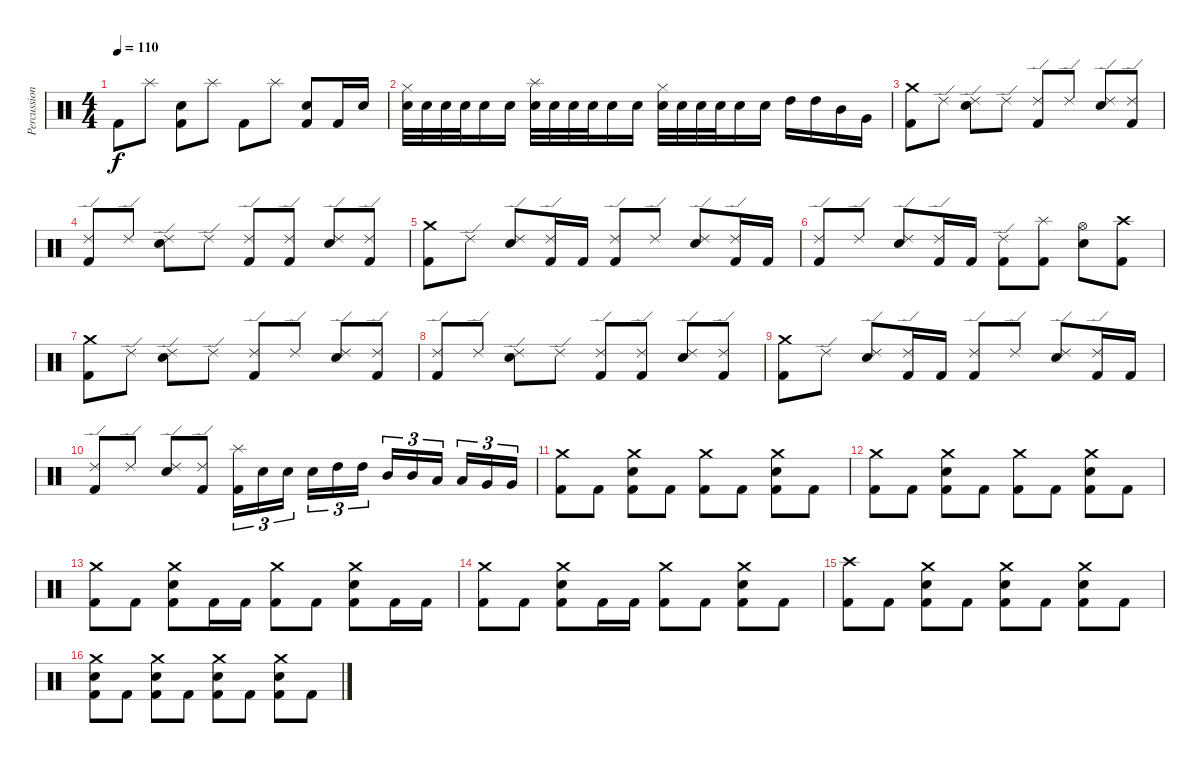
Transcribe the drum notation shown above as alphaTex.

\track ("Percussion" "Percussion") {instrument percussion}
\staff {score}
\articulation defaults
\ts (4 4)
\tempo 110
\clef neutral
\ks c "Kick (hit) 2".8{dy f} "Splash (hit)".8
("Electric Snare (hit)" "Kick (hit) 2").8 "Splash (hit)".8 "Kick (hit) 2".8 "Splash (hit)".8 ("Electric Snare (hit)" "Kick (hit) 2").8 "Kick (hit) 2".16 "Electric Snare (hit)".16 |
("Hi-Hat (closed)" "Electric Snare (hit)").32 "Electric Snare (hit)".32 "Electric Snare (hit)".32 "Electric Snare (hit)".32 "Electric Snare (hit)".16 "Electric Snare (hit)".16 ("Splash (hit)" "Electric Snare (hit)").32 "Electric Snare (hit)".32 "Electric Snare (hit)".32 "Electric Snare (hit)".32 "Electric Snare (hit)".16 "Electric Snare (hit)".16 ("Hi-Hat (closed)" "Electric Snare (hit)").32 "Electric Snare (hit)".32 "Electric Snare (hit)".32 "Electric Snare (hit)".32 "Electric Snare (hit)".16 "Electric Snare (hit)".16 "High Tom (hit)".16 "High Tom (hit)".16 "Mid Tom (hit)".16 "Very Low Tom (hit)".16 |
("Crash medium (hit)" "Kick (hit) 2").8 "Ride (edge) 2".8 ("Ride (edge) 2" "Electric Snare (hit)").8 "Ride (edge) 2".8 ("Ride (edge) 2" "Kick (hit) 2").8 "Ride (edge) 2".8 ("Ride (edge) 2" "Electric Snare (hit)").8 ("Ride (edge) 2" "Kick (hit) 2").8 |
("Ride (edge) 2" "Kick (hit) 2").8 "Ride (edge) 2".8 ("Ride (edge) 2" "Electric Snare (hit)").8 "Ride (edge) 2".8 ("Ride (edge) 2" "Kick (hit) 2").8 ("Ride (edge) 2" "Kick (hit) 2").8 ("Ride (edge) 2" "Electric Snare (hit)").8 ("Ride (edge) 2" "Kick (hit) 2").8 |
("Crash medium (hit)" "Kick (hit) 2").8 "Ride (edge) 2".8 ("Ride (edge) 2" "Electric Snare (hit)").8 ("Ride (edge) 2" "Kick (hit) 2").16 "Kick (hit) 2".16 ("Ride (edge) 2" "Kick (hit) 2").8 "Ride (edge) 2".8 ("Ride (edge) 2" "Electric Snare (hit)").8 ("Ride (edge) 2" "Kick (hit) 2").16 "Kick (hit) 2".16 |
("Ride (edge) 2" "Kick (hit) 2").8 "Ride (edge) 2".8 ("Ride (edge) 2" "Electric Snare (hit)").8 ("Ride (edge) 2" "Kick (hit) 2").16 "Kick (hit) 2".16 ("Ride (edge) 2" "Kick (hit) 2").8 ("Splash (hit)" "Kick (hit) 2").8 ("Hi-Hat (open)" "Electric Snare (hit)").8 ("Crash high (hit)" "Kick (hit) 2").8 |
("Crash medium (hit)" "Kick (hit) 2").8 "Ride (edge) 2".8 ("Ride (edge) 2" "Electric Snare (hit)").8 "Ride (edge) 2".8 ("Ride (edge) 2" "Kick (hit) 2").8 "Ride (edge) 2".8 ("Ride (edge) 2" "Electric Snare (hit)").8 ("Ride (edge) 2" "Kick (hit) 2").8 |
("Ride (edge) 2" "Kick (hit) 2").8 "Ride (edge) 2".8 ("Ride (edge) 2" "Electric Snare (hit)").8 "Ride (edge) 2".8 ("Ride (edge) 2" "Kick (hit) 2").8 ("Ride (edge) 2" "Kick (hit) 2").8 ("Ride (edge) 2" "Electric Snare (hit)").8 ("Ride (edge) 2" "Kick (hit) 2").8 |
("Crash medium (hit)" "Kick (hit) 2").8 "Ride (edge) 2".8 ("Ride (edge) 2" "Electric Snare (hit)").8 ("Ride (edge) 2" "Kick (hit) 2").16 "Kick (hit) 2".16 ("Ride (edge) 2" "Kick (hit) 2").8 "Ride (edge) 2".8 ("Ride (edge) 2" "Electric Snare (hit)").8 ("Ride (edge) 2" "Kick (hit) 2").16 "Kick (hit) 2".16 |
("Ride (edge) 2" "Kick (hit) 2").8 "Ride (edge) 2".8 ("Ride (edge) 2" "Electric Snare (hit)").8 ("Ride (edge) 2" "Kick (hit) 2").8 ("Splash (hit)" "Kick (hit) 2").16{tu (3 2)} "Electric Snare (hit)".16{tu (3 2)} "Electric Snare (hit)".16{tu (3 2)} "Electric Snare (hit)".16{tu (3 2)} "High Tom (hit)".16{tu (3 2)} "High Tom (hit)".16{tu (3 2)} "Mid Tom (hit)".16{tu (3 2)} "Mid Tom (hit)".16{tu (3 2)} "Low Tom (hit)".16{tu (3 2)} "Low Tom (hit)".16{tu (3 2)} "Very Low Tom (hit)".16{tu (3 2)} "Very Low Tom (hit)".16{tu (3 2)} |
("Crash medium (hit)" "Kick (hit) 2").8 "Kick (hit) 2".8 ("Crash medium (hit)" "Electric Snare (hit)" "Kick (hit) 2").8 "Kick (hit) 2".8 ("Crash medium (hit)" "Kick (hit) 2").8 "Kick (hit) 2".8 ("Crash medium (hit)" "Electric Snare (hit)" "Kick (hit) 2").8 "Kick (hit) 2".8 |
("Crash medium (hit)" "Kick (hit) 2").8 "Kick (hit) 2".8 ("Crash medium (hit)" "Electric Snare (hit)" "Kick (hit) 2").8 "Kick (hit) 2".8 ("Crash medium (hit)" "Kick (hit) 2").8 "Kick (hit) 2".8 ("Crash medium (hit)" "Electric Snare (hit)" "Kick (hit) 2").8 "Kick (hit) 2".8 |
("Crash medium (hit)" "Kick (hit) 2").8 "Kick (hit) 2".8 ("Crash medium (hit)" "Electric Snare (hit)" "Kick (hit) 2").8 "Kick (hit) 2".16 "Kick (hit) 2".16 ("Crash medium (hit)" "Kick (hit) 2").8 "Kick (hit) 2".8 ("Crash medium (hit)" "Electric Snare (hit)" "Kick (hit) 2").8 "Kick (hit) 2".16 "Kick (hit) 2".16 |
("Crash medium (hit)" "Kick (hit) 2").8 "Kick (hit) 2".8 ("Crash medium (hit)" "Electric Snare (hit)" "Kick (hit) 2").8 "Kick (hit) 2".16 "Kick (hit) 2".16 ("Crash medium (hit)" "Kick (hit) 2").8 "Kick (hit) 2".8 ("Crash medium (hit)" "Electric Snare (hit)" "Kick (hit) 2").8 "Kick (hit) 2".8 |
("Crash high (hit)" "Kick (hit) 2").8 "Kick (hit) 2".8 ("Crash medium (hit)" "Electric Snare (hit)" "Kick (hit) 2").8 "Kick (hit) 2".8 ("Crash medium (hit)" "Electric Snare (hit)" "Kick (hit) 2").8 "Kick (hit) 2".8 ("Crash medium (hit)" "Electric Snare (hit)" "Kick (hit) 2").8 "Kick (hit) 2".8 |
("Crash medium (hit)" "Electric Snare (hit)" "Kick (hit) 2").8 "Kick (hit) 2".8 ("Crash medium (hit)" "Electric Snare (hit)" "Kick (hit) 2").8 "Kick (hit) 2".8 ("Crash medium (hit)" "Electric Snare (hit)" "Kick (hit) 2").8 "Kick (hit) 2".8 ("Crash medium (hit)" "Electric Snare (hit)" "Kick (hit) 2").8 "Kick (hit) 2".8
